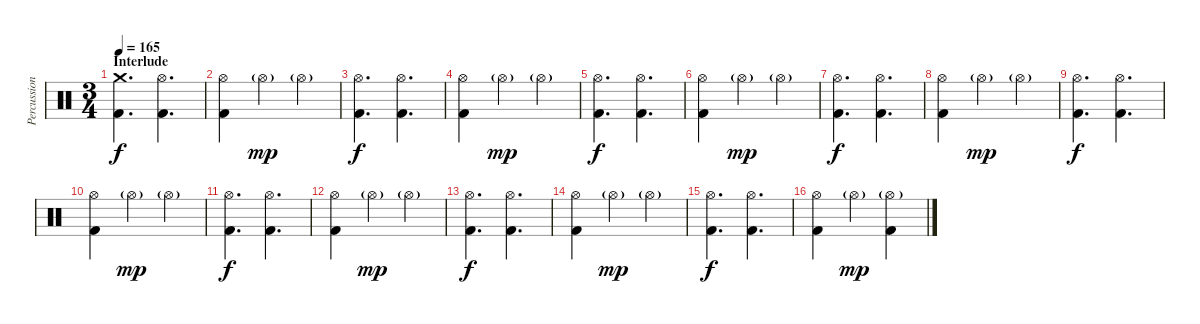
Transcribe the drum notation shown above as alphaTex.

\track ("Percussion" "Percussion") {instrument percussion}
\staff {score}
\articulation defaults
\ts (3 4)
\section ("" "Interlude")
\tempo 165
\clef neutral
\ks c
("Crash medium (hit)" "Kick (hit) 2").4{d dy f} ("Hi-Hat (open)" "Kick (hit) 2").4{d} |
("Hi-Hat (open)" "Kick (hit) 2").4 "Hi-Hat (open)"{g}.4{dy mp} "Hi-Hat (open)"{g}.4 |
("Hi-Hat (open)" "Kick (hit) 2").4{d dy f} ("Hi-Hat (open)" "Kick (hit) 2").4{d} |
("Hi-Hat (open)" "Kick (hit) 2").4 "Hi-Hat (open)"{g}.4{dy mp} "Hi-Hat (open)"{g}.4 |
("Hi-Hat (open)" "Kick (hit) 2").4{d dy f} ("Hi-Hat (open)" "Kick (hit) 2").4{d} |
("Hi-Hat (open)" "Kick (hit) 2").4 "Hi-Hat (open)"{g}.4{dy mp} "Hi-Hat (open)"{g}.4 |
("Hi-Hat (open)" "Kick (hit) 2").4{d dy f} ("Hi-Hat (open)" "Kick (hit) 2").4{d} |
("Hi-Hat (open)" "Kick (hit) 2").4 "Hi-Hat (open)"{g}.4{dy mp} "Hi-Hat (open)"{g}.4 |
("Hi-Hat (open)" "Kick (hit) 2").4{d dy f} ("Hi-Hat (open)" "Kick (hit) 2").4{d} |
("Hi-Hat (open)" "Kick (hit) 2").4 "Hi-Hat (open)"{g}.4{dy mp} "Hi-Hat (open)"{g}.4 |
("Hi-Hat (open)" "Kick (hit) 2").4{d dy f} ("Hi-Hat (open)" "Kick (hit) 2").4{d} |
("Hi-Hat (open)" "Kick (hit) 2").4 "Hi-Hat (open)"{g}.4{dy mp} "Hi-Hat (open)"{g}.4 |
("Hi-Hat (open)" "Kick (hit) 2").4{d dy f} ("Hi-Hat (open)" "Kick (hit) 2").4{d} |
("Hi-Hat (open)" "Kick (hit) 2").4 "Hi-Hat (open)"{g}.4{dy mp} "Hi-Hat (open)"{g}.4 |
("Hi-Hat (open)" "Kick (hit) 2").4{d dy f} ("Hi-Hat (open)" "Kick (hit) 2").4{d} |
("Hi-Hat (open)" "Kick (hit) 2").4 "Hi-Hat (open)"{g}.4{dy mp} ("Hi-Hat (open)"{g} "Kick (hit) 2").4
